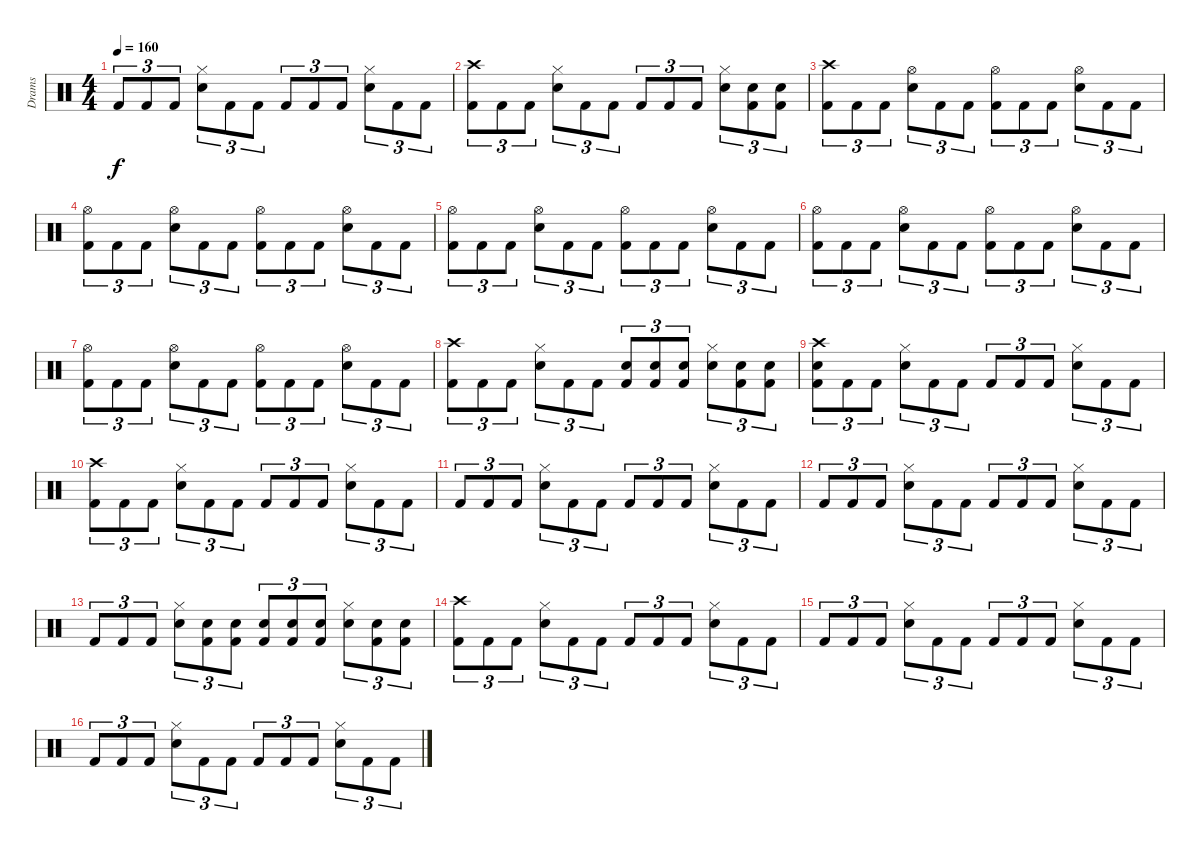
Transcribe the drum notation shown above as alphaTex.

\track ("Drams" "Drams") {instrument percussion}
\staff {score}
\articulation defaults
\ts (4 4)
\tempo 160
\clef neutral
\ks c "Kick (hit) 2".8{tu (3 2) dy f} "Kick (hit) 2".8{tu (3 2)} "Kick (hit) 2".8{tu (3 2)}
("Hi-Hat (closed)" "Snare (hit) 2").8{tu (3 2)} "Kick (hit) 2".8{tu (3 2)} "Kick (hit) 2".8{tu (3 2)} "Kick (hit) 2".8{tu (3 2)} "Kick (hit) 2".8{tu (3 2)} "Kick (hit) 2".8{tu (3 2)} ("Hi-Hat (closed)" "Snare (hit) 2").8{tu (3 2)} "Kick (hit) 2".8{tu (3 2)} "Kick (hit) 2".8{tu (3 2)} |
("Crash high (hit)" "Kick (hit) 2").8{tu (3 2)} "Kick (hit) 2".8{tu (3 2)} "Kick (hit) 2".8{tu (3 2)} ("Hi-Hat (closed)" "Snare (hit) 2").8{tu (3 2)} "Kick (hit) 2".8{tu (3 2)} "Kick (hit) 2".8{tu (3 2)} "Kick (hit) 2".8{tu (3 2)} "Kick (hit) 2".8{tu (3 2)} "Kick (hit) 2".8{tu (3 2)} ("Hi-Hat (closed)" "Snare (hit) 2").8{tu (3 2)} ("Snare (hit) 2" "Kick (hit) 2").8{tu (3 2)} ("Snare (hit) 2" "Kick (hit) 2").8{tu (3 2)} |
("Crash high (hit)" "Kick (hit) 2").8{tu (3 2)} "Kick (hit) 2".8{tu (3 2)} "Kick (hit) 2".8{tu (3 2)} ("Hi-Hat (open)" "Snare (hit) 2").8{tu (3 2)} "Kick (hit) 2".8{tu (3 2)} "Kick (hit) 2".8{tu (3 2)} ("Hi-Hat (open)" "Kick (hit) 2").8{tu (3 2)} "Kick (hit) 2".8{tu (3 2)} "Kick (hit) 2".8{tu (3 2)} ("Hi-Hat (open)" "Snare (hit) 2").8{tu (3 2)} "Kick (hit) 2".8{tu (3 2)} "Kick (hit) 2".8{tu (3 2)} |
("Hi-Hat (open)" "Kick (hit) 2").8{tu (3 2)} "Kick (hit) 2".8{tu (3 2)} "Kick (hit) 2".8{tu (3 2)} ("Hi-Hat (open)" "Snare (hit) 2").8{tu (3 2)} "Kick (hit) 2".8{tu (3 2)} "Kick (hit) 2".8{tu (3 2)} ("Hi-Hat (open)" "Kick (hit) 2").8{tu (3 2)} "Kick (hit) 2".8{tu (3 2)} "Kick (hit) 2".8{tu (3 2)} ("Hi-Hat (open)" "Snare (hit) 2").8{tu (3 2)} "Kick (hit) 2".8{tu (3 2)} "Kick (hit) 2".8{tu (3 2)} |
("Hi-Hat (open)" "Kick (hit) 2").8{tu (3 2)} "Kick (hit) 2".8{tu (3 2)} "Kick (hit) 2".8{tu (3 2)} ("Hi-Hat (open)" "Snare (hit) 2").8{tu (3 2)} "Kick (hit) 2".8{tu (3 2)} "Kick (hit) 2".8{tu (3 2)} ("Hi-Hat (open)" "Kick (hit) 2").8{tu (3 2)} "Kick (hit) 2".8{tu (3 2)} "Kick (hit) 2".8{tu (3 2)} ("Hi-Hat (open)" "Snare (hit) 2").8{tu (3 2)} "Kick (hit) 2".8{tu (3 2)} "Kick (hit) 2".8{tu (3 2)} |
("Hi-Hat (open)" "Kick (hit) 2").8{tu (3 2)} "Kick (hit) 2".8{tu (3 2)} "Kick (hit) 2".8{tu (3 2)} ("Hi-Hat (open)" "Snare (hit) 2").8{tu (3 2)} "Kick (hit) 2".8{tu (3 2)} "Kick (hit) 2".8{tu (3 2)} ("Hi-Hat (open)" "Kick (hit) 2").8{tu (3 2)} "Kick (hit) 2".8{tu (3 2)} "Kick (hit) 2".8{tu (3 2)} ("Hi-Hat (open)" "Snare (hit) 2").8{tu (3 2)} "Kick (hit) 2".8{tu (3 2)} "Kick (hit) 2".8{tu (3 2)} |
("Hi-Hat (open)" "Kick (hit) 2").8{tu (3 2)} "Kick (hit) 2".8{tu (3 2)} "Kick (hit) 2".8{tu (3 2)} ("Hi-Hat (open)" "Snare (hit) 2").8{tu (3 2)} "Kick (hit) 2".8{tu (3 2)} "Kick (hit) 2".8{tu (3 2)} ("Hi-Hat (open)" "Kick (hit) 2").8{tu (3 2)} "Kick (hit) 2".8{tu (3 2)} "Kick (hit) 2".8{tu (3 2)} ("Hi-Hat (open)" "Snare (hit) 2").8{tu (3 2)} "Kick (hit) 2".8{tu (3 2)} "Kick (hit) 2".8{tu (3 2)} |
("Crash high (hit)" "Kick (hit) 2").8{tu (3 2)} "Kick (hit) 2".8{tu (3 2)} "Kick (hit) 2".8{tu (3 2)} ("Hi-Hat (closed)" "Snare (hit) 2").8{tu (3 2)} "Kick (hit) 2".8{tu (3 2)} "Kick (hit) 2".8{tu (3 2)} ("Snare (hit) 2" "Kick (hit) 2").8{tu (3 2)} ("Snare (hit) 2" "Kick (hit) 2").8{tu (3 2)} ("Snare (hit) 2" "Kick (hit) 2").8{tu (3 2)} ("Hi-Hat (closed)" "Snare (hit) 2").8{tu (3 2)} ("Snare (hit) 2" "Kick (hit) 2").8{tu (3 2)} ("Snare (hit) 2" "Kick (hit) 2").8{tu (3 2)} |
("Crash high (hit)" "Snare (hit) 2" "Kick (hit) 2").8{tu (3 2)} "Kick (hit) 2".8{tu (3 2)} "Kick (hit) 2".8{tu (3 2)} ("Hi-Hat (closed)" "Snare (hit) 2").8{tu (3 2)} "Kick (hit) 2".8{tu (3 2)} "Kick (hit) 2".8{tu (3 2)} "Kick (hit) 2".8{tu (3 2)} "Kick (hit) 2".8{tu (3 2)} "Kick (hit) 2".8{tu (3 2)} ("Hi-Hat (closed)" "Snare (hit) 2").8{tu (3 2)} "Kick (hit) 2".8{tu (3 2)} "Kick (hit) 2".8{tu (3 2)} |
("Crash high (hit)" "Kick (hit) 2").8{tu (3 2)} "Kick (hit) 2".8{tu (3 2)} "Kick (hit) 2".8{tu (3 2)} ("Hi-Hat (closed)" "Snare (hit) 2").8{tu (3 2)} "Kick (hit) 2".8{tu (3 2)} "Kick (hit) 2".8{tu (3 2)} "Kick (hit) 2".8{tu (3 2)} "Kick (hit) 2".8{tu (3 2)} "Kick (hit) 2".8{tu (3 2)} ("Hi-Hat (closed)" "Snare (hit) 2").8{tu (3 2)} "Kick (hit) 2".8{tu (3 2)} "Kick (hit) 2".8{tu (3 2)} |
"Kick (hit) 2".8{tu (3 2)} "Kick (hit) 2".8{tu (3 2)} "Kick (hit) 2".8{tu (3 2)} ("Hi-Hat (closed)" "Snare (hit) 2").8{tu (3 2)} "Kick (hit) 2".8{tu (3 2)} "Kick (hit) 2".8{tu (3 2)} "Kick (hit) 2".8{tu (3 2)} "Kick (hit) 2".8{tu (3 2)} "Kick (hit) 2".8{tu (3 2)} ("Hi-Hat (closed)" "Snare (hit) 2").8{tu (3 2)} "Kick (hit) 2".8{tu (3 2)} "Kick (hit) 2".8{tu (3 2)} |
"Kick (hit) 2".8{tu (3 2)} "Kick (hit) 2".8{tu (3 2)} "Kick (hit) 2".8{tu (3 2)} ("Hi-Hat (closed)" "Snare (hit) 2").8{tu (3 2)} "Kick (hit) 2".8{tu (3 2)} "Kick (hit) 2".8{tu (3 2)} "Kick (hit) 2".8{tu (3 2)} "Kick (hit) 2".8{tu (3 2)} "Kick (hit) 2".8{tu (3 2)} ("Hi-Hat (closed)" "Snare (hit) 2").8{tu (3 2)} "Kick (hit) 2".8{tu (3 2)} "Kick (hit) 2".8{tu (3 2)} |
"Kick (hit) 2".8{tu (3 2)} "Kick (hit) 2".8{tu (3 2)} "Kick (hit) 2".8{tu (3 2)} ("Hi-Hat (closed)" "Snare (hit) 2").8{tu (3 2)} ("Snare (hit) 2" "Kick (hit) 2").8{tu (3 2)} ("Snare (hit) 2" "Kick (hit) 2").8{tu (3 2)} ("Snare (hit) 2" "Kick (hit) 2").8{tu (3 2)} ("Snare (hit) 2" "Kick (hit) 2").8{tu (3 2)} ("Snare (hit) 2" "Kick (hit) 2").8{tu (3 2)} ("Hi-Hat (closed)" "Snare (hit) 2").8{tu (3 2)} ("Snare (hit) 2" "Kick (hit) 2").8{tu (3 2)} ("Snare (hit) 2" "Kick (hit) 2").8{tu (3 2)} |
("Crash high (hit)" "Kick (hit) 2").8{tu (3 2)} "Kick (hit) 2".8{tu (3 2)} "Kick (hit) 2".8{tu (3 2)} ("Hi-Hat (closed)" "Snare (hit) 2").8{tu (3 2)} "Kick (hit) 2".8{tu (3 2)} "Kick (hit) 2".8{tu (3 2)} "Kick (hit) 2".8{tu (3 2)} "Kick (hit) 2".8{tu (3 2)} "Kick (hit) 2".8{tu (3 2)} ("Hi-Hat (closed)" "Snare (hit) 2").8{tu (3 2)} "Kick (hit) 2".8{tu (3 2)} "Kick (hit) 2".8{tu (3 2)} |
"Kick (hit) 2".8{tu (3 2)} "Kick (hit) 2".8{tu (3 2)} "Kick (hit) 2".8{tu (3 2)} ("Hi-Hat (closed)" "Snare (hit) 2").8{tu (3 2)} "Kick (hit) 2".8{tu (3 2)} "Kick (hit) 2".8{tu (3 2)} "Kick (hit) 2".8{tu (3 2)} "Kick (hit) 2".8{tu (3 2)} "Kick (hit) 2".8{tu (3 2)} ("Hi-Hat (closed)" "Snare (hit) 2").8{tu (3 2)} "Kick (hit) 2".8{tu (3 2)} "Kick (hit) 2".8{tu (3 2)} |
"Kick (hit) 2".8{tu (3 2)} "Kick (hit) 2".8{tu (3 2)} "Kick (hit) 2".8{tu (3 2)} ("Hi-Hat (closed)" "Snare (hit) 2").8{tu (3 2)} "Kick (hit) 2".8{tu (3 2)} "Kick (hit) 2".8{tu (3 2)} "Kick (hit) 2".8{tu (3 2)} "Kick (hit) 2".8{tu (3 2)} "Kick (hit) 2".8{tu (3 2)} ("Hi-Hat (closed)" "Snare (hit) 2").8{tu (3 2)} "Kick (hit) 2".8{tu (3 2)} "Kick (hit) 2".8{tu (3 2)}
